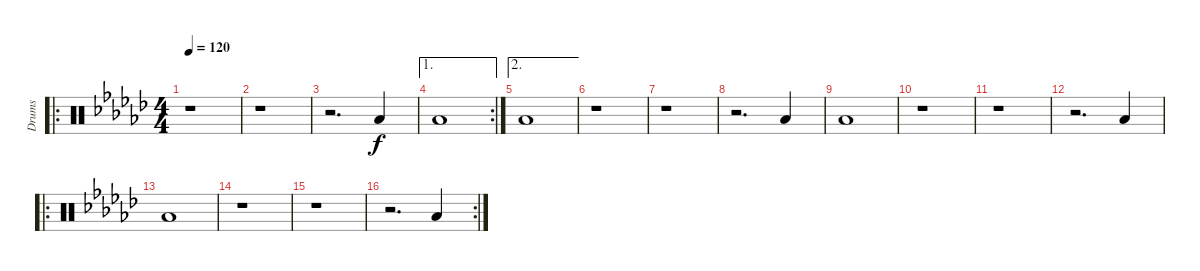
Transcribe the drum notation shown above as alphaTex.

\track ("Drums" "Drums") {instrument percussion}
\staff {score}
\articulation defaults
\ro
\ts (4 4)
\tempo 120
\clef neutral
\ks gb
r.1{dy f} |
r.1 |
r.2{d} "Low Floor Tom (hit)".4 |
\ae 1
\rc 2 "Low Floor Tom (hit)".1
|
\ae 2 "Low Floor Tom (hit)".1
|
r.1 |
r.1 |
r.2{d} "Low Floor Tom (hit)".4 |
"Low Floor Tom (hit)".1 |
r.1 |
r.1 |
r.2{d} "Low Floor Tom (hit)".4 |
\ro "Low Floor Tom (hit)".1
|
r.1 |
r.1 |
\rc 2
r.2{d} "Low Floor Tom (hit)".4
